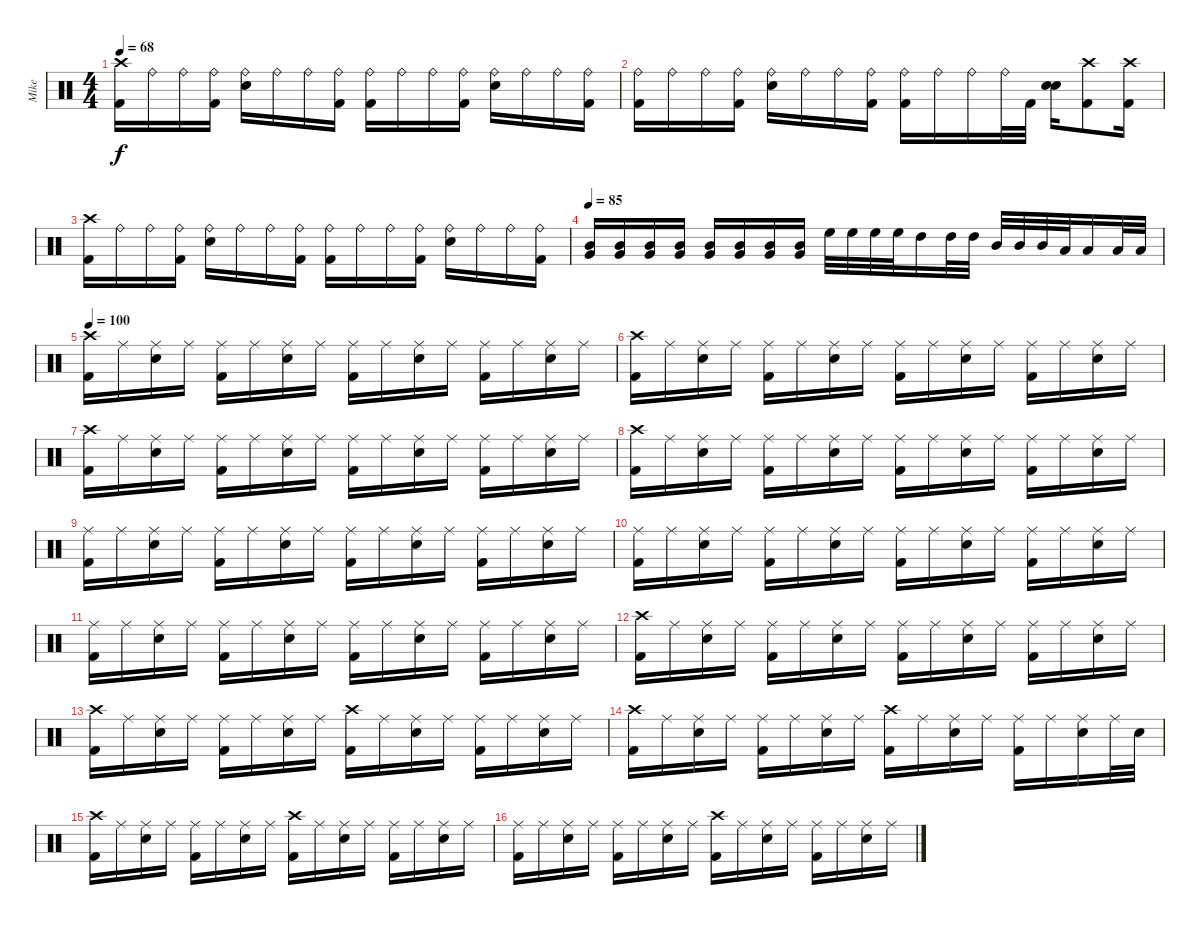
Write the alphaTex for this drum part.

\track ("Mike" "Mike") {instrument percussion}
\staff {score}
\articulation defaults
\ts (4 4)
\tempo 68
\clef neutral
\ks c
("Crash high (hit)" "Kick (hit) 2").16{dy f} "Ride (bell)".16 "Ride (bell)".16 ("Ride (bell)" "Kick (hit) 2").16 ("Ride (bell)" "Snare (hit) 2").16 "Ride (bell)".16 "Ride (bell)".16 ("Ride (bell)" "Kick (hit) 2").16 ("Ride (bell)" "Kick (hit) 2").16 "Ride (bell)".16 "Ride (bell)".16 ("Ride (bell)" "Kick (hit) 2").16 ("Ride (bell)" "Snare (hit) 2").16 "Ride (bell)".16 "Ride (bell)".16 ("Ride (bell)" "Kick (hit) 2").16 |
("Ride (bell)" "Kick (hit) 2").16 "Ride (bell)".16 "Ride (bell)".16 ("Ride (bell)" "Kick (hit) 2").16 ("Ride (bell)" "Snare (hit) 2").16 "Ride (bell)".16 "Ride (bell)".16 ("Ride (bell)" "Kick (hit) 2").16 ("Ride (bell)" "Kick (hit) 2").16 "Ride (bell)".16 "Ride (bell)".16 "Ride (bell)".32 "Kick (hit) 2".32 ("Snare (hit) 2" "Snare (hit) 2").16 ("Crash high (hit)" "Kick (hit) 2").8 ("Crash high (hit)" "Kick (hit) 2").16 |
("Crash high (hit)" "Kick (hit) 2").16 "Ride (bell)".16 "Ride (bell)".16 ("Ride (bell)" "Kick (hit) 2").16 ("Ride (bell)" "Snare (hit) 2").16 "Ride (bell)".16 "Ride (bell)".16 ("Ride (bell)" "Kick (hit) 2").16 ("Ride (bell)" "Kick (hit) 2").16 "Ride (bell)".16 "Ride (bell)".16 ("Ride (bell)" "Kick (hit) 2").16 ("Ride (bell)" "Snare (hit) 2").16 "Ride (bell)".16 "Ride (bell)".16 ("Ride (bell)" "Kick (hit) 2").16 |
\tempo 85
("Mid Tom (hit)" "Very Low Tom (hit)").16 ("Mid Tom (hit)" "Very Low Tom (hit)").16 ("Mid Tom (hit)" "Very Low Tom (hit)").16 ("Mid Tom (hit)" "Very Low Tom (hit)").16 ("Mid Tom (hit)" "Very Low Tom (hit)").16 ("Mid Tom (hit)" "Very Low Tom (hit)").16 ("Mid Tom (hit)" "Very Low Tom (hit)").16 ("Mid Tom (hit)" "Very Low Tom (hit)").16 "High Floor Tom (hit)".32 "High Floor Tom (hit)".32 "High Floor Tom (hit)".32 "High Floor Tom (hit)".32 "High Tom (hit)".16 "High Tom (hit)".32 "High Tom (hit)".32 "Mid Tom (hit)".32 "Mid Tom (hit)".32 "Mid Tom (hit)".32 "Low Tom (hit)".32 "Low Tom (hit)".16 "Low Tom (hit)".32 "Low Tom (hit)".32 |
\tempo 100
("Crash high (hit)" "Kick (hit) 2").16 "Ride (middle)".16 ("Ride (middle)" "Snare (hit) 2").16 "Ride (middle)".16 ("Ride (middle)" "Kick (hit) 2").16 "Ride (middle)".16 ("Ride (middle)" "Snare (hit) 2").16 "Ride (middle)".16 ("Ride (middle)" "Kick (hit) 2").16 "Ride (middle)".16 ("Ride (middle)" "Snare (hit) 2").16 "Ride (middle)".16 ("Ride (middle)" "Kick (hit) 2").16 "Ride (middle)".16 ("Ride (middle)" "Snare (hit) 2").16 "Ride (middle)".16 |
("Crash high (hit)" "Kick (hit) 2").16 "Ride (middle)".16 ("Ride (middle)" "Snare (hit) 2").16 "Ride (middle)".16 ("Ride (middle)" "Kick (hit) 2").16 "Ride (middle)".16 ("Ride (middle)" "Snare (hit) 2").16 "Ride (middle)".16 ("Ride (middle)" "Kick (hit) 2").16 "Ride (middle)".16 ("Ride (middle)" "Snare (hit) 2").16 "Ride (middle)".16 ("Ride (middle)" "Kick (hit) 2").16 "Ride (middle)".16 ("Ride (middle)" "Snare (hit) 2").16 "Ride (middle)".16 |
("Crash high (hit)" "Kick (hit) 2").16 "Ride (middle)".16 ("Ride (middle)" "Snare (hit) 2").16 "Ride (middle)".16 ("Ride (middle)" "Kick (hit) 2").16 "Ride (middle)".16 ("Ride (middle)" "Snare (hit) 2").16 "Ride (middle)".16 ("Ride (middle)" "Kick (hit) 2").16 "Ride (middle)".16 ("Ride (middle)" "Snare (hit) 2").16 "Ride (middle)".16 ("Ride (middle)" "Kick (hit) 2").16 "Ride (middle)".16 ("Ride (middle)" "Snare (hit) 2").16 "Ride (middle)".16 |
("Crash high (hit)" "Kick (hit) 2").16 "Ride (middle)".16 ("Ride (middle)" "Snare (hit) 2").16 "Ride (middle)".16 ("Ride (middle)" "Kick (hit) 2").16 "Ride (middle)".16 ("Ride (middle)" "Snare (hit) 2").16 "Ride (middle)".16 ("Ride (middle)" "Kick (hit) 2").16 "Ride (middle)".16 ("Ride (middle)" "Snare (hit) 2").16 "Ride (middle)".16 ("Ride (middle)" "Kick (hit) 2").16 "Ride (middle)".16 ("Ride (middle)" "Snare (hit) 2").16 "Ride (middle)".16 |
("Ride (middle)" "Kick (hit) 2").16 "Ride (middle)".16 ("Ride (middle)" "Snare (hit) 2").16 "Ride (middle)".16 ("Ride (middle)" "Kick (hit) 2").16 "Ride (middle)".16 ("Ride (middle)" "Snare (hit) 2").16 "Ride (middle)".16 ("Ride (middle)" "Kick (hit) 2").16 "Ride (middle)".16 ("Ride (middle)" "Snare (hit) 2").16 "Ride (middle)".16 ("Ride (middle)" "Kick (hit) 2").16 "Ride (middle)".16 ("Ride (middle)" "Snare (hit) 2").16 "Ride (middle)".16 |
("Ride (middle)" "Kick (hit) 2").16 "Ride (middle)".16 ("Ride (middle)" "Snare (hit) 2").16 "Ride (middle)".16 ("Ride (middle)" "Kick (hit) 2").16 "Ride (middle)".16 ("Ride (middle)" "Snare (hit) 2").16 "Ride (middle)".16 ("Ride (middle)" "Kick (hit) 2").16 "Ride (middle)".16 ("Ride (middle)" "Snare (hit) 2").16 "Ride (middle)".16 ("Ride (middle)" "Kick (hit) 2").16 "Ride (middle)".16 ("Ride (middle)" "Snare (hit) 2").16 "Ride (middle)".16 |
("Ride (middle)" "Kick (hit) 2").16 "Ride (middle)".16 ("Ride (middle)" "Snare (hit) 2").16 "Ride (middle)".16 ("Ride (middle)" "Kick (hit) 2").16 "Ride (middle)".16 ("Ride (middle)" "Snare (hit) 2").16 "Ride (middle)".16 ("Ride (middle)" "Kick (hit) 2").16 "Ride (middle)".16 ("Ride (middle)" "Snare (hit) 2").16 "Ride (middle)".16 ("Ride (middle)" "Kick (hit) 2").16 "Ride (middle)".16 ("Ride (middle)" "Snare (hit) 2").16 "Ride (middle)".16 |
("Crash high (hit)" "Kick (hit) 2").16 "Ride (middle)".16 ("Ride (middle)" "Snare (hit) 2").16 "Ride (middle)".16 ("Ride (middle)" "Kick (hit) 2").16 "Ride (middle)".16 ("Ride (middle)" "Snare (hit) 2").16 "Ride (middle)".16 ("Ride (middle)" "Kick (hit) 2").16 "Ride (middle)".16 ("Ride (middle)" "Snare (hit) 2").16 "Ride (middle)".16 ("Ride (middle)" "Kick (hit) 2").16 "Ride (middle)".16 ("Ride (middle)" "Snare (hit) 2").16 "Ride (middle)".16 |
("Crash high (hit)" "Kick (hit) 2").16 "Ride (middle)".16 ("Ride (middle)" "Snare (hit) 2").16 "Ride (middle)".16 ("Ride (middle)" "Kick (hit) 2").16 "Ride (middle)".16 ("Ride (middle)" "Snare (hit) 2").16 "Ride (middle)".16 ("Crash high (hit)" "Kick (hit) 2").16 "Ride (middle)".16 ("Ride (middle)" "Snare (hit) 2").16 "Ride (middle)".16 ("Ride (middle)" "Kick (hit) 2").16 "Ride (middle)".16 ("Ride (middle)" "Snare (hit) 2").16 "Ride (middle)".16 |
("Crash high (hit)" "Kick (hit) 2").16 "Ride (middle)".16 ("Ride (middle)" "Snare (hit) 2").16 "Ride (middle)".16 ("Ride (middle)" "Kick (hit) 2").16 "Ride (middle)".16 ("Ride (middle)" "Snare (hit) 2").16 "Ride (middle)".16 ("Crash high (hit)" "Kick (hit) 2").16 "Ride (middle)".16 ("Ride (middle)" "Snare (hit) 2").16 "Ride (middle)".16 ("Ride (middle)" "Kick (hit) 2").16 "Ride (middle)".16 ("Ride (middle)" "Snare (hit) 2").16 "Ride (middle)".32 "Snare (hit) 2".32 |
("Crash high (hit)" "Kick (hit) 2").16 "Ride (middle)".16 ("Ride (middle)" "Snare (hit) 2").16 "Ride (middle)".16 ("Ride (middle)" "Kick (hit) 2").16 "Ride (middle)".16 ("Ride (middle)" "Snare (hit) 2").16 "Ride (middle)".16 ("Crash high (hit)" "Kick (hit) 2").16 "Ride (middle)".16 ("Ride (middle)" "Snare (hit) 2").16 "Ride (middle)".16 ("Ride (middle)" "Kick (hit) 2").16 "Ride (middle)".16 ("Ride (middle)" "Snare (hit) 2").16 "Ride (middle)".16 |
("Ride (middle)" "Kick (hit) 2").16 "Ride (middle)".16 ("Ride (middle)" "Snare (hit) 2").16 "Ride (middle)".16 ("Ride (middle)" "Kick (hit) 2").16 "Ride (middle)".16 ("Ride (middle)" "Snare (hit) 2").16 "Ride (middle)".16 ("Crash high (hit)" "Kick (hit) 2").16 "Ride (middle)".16 ("Ride (middle)" "Snare (hit) 2").16 "Ride (middle)".16 ("Ride (middle)" "Kick (hit) 2").16 "Ride (middle)".16 ("Ride (middle)" "Snare (hit) 2").16 "Ride (middle)".16
